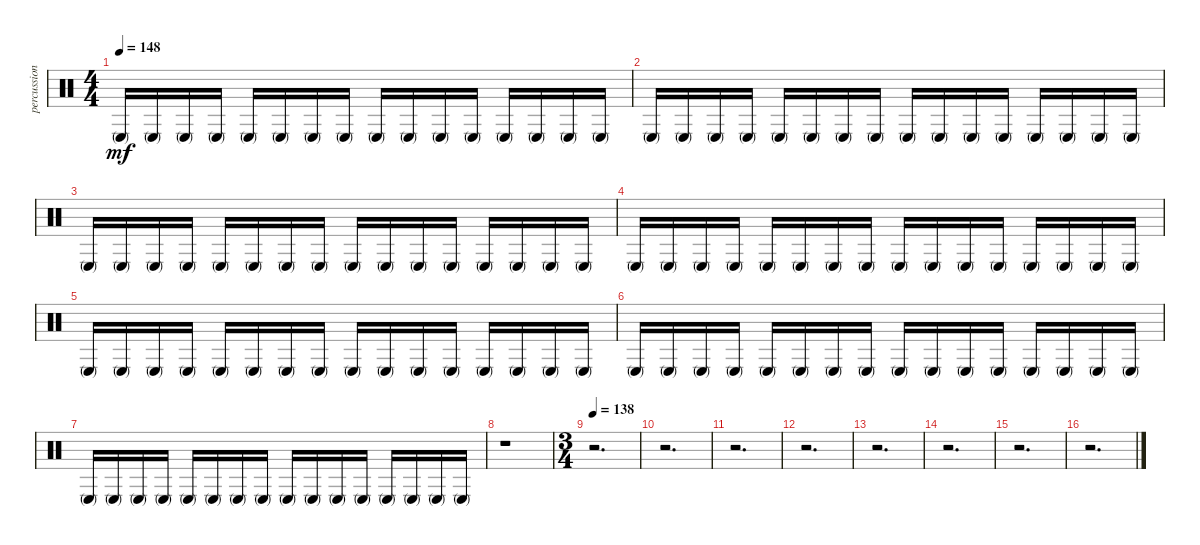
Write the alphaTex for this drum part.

\track ("percussion fx 2" "percussion") {instrument percussion}
\staff {score}
\articulation defaults
\ts (4 4)
\tempo 148
\clef neutral
\ks c "Conga low (mute)".16{dy mf} "Conga low (mute)".16 "Conga low (mute)".16 "Conga low (mute)".16 "Conga low (mute)".16 "Conga low (mute)".16 "Conga low (mute)".16 "Conga low (mute)".16 "Conga low (mute)".16 "Conga low (mute)".16 "Conga low (mute)".16 "Conga low (mute)".16 "Conga low (mute)".16 "Conga low (mute)".16 "Conga low (mute)".16 "Conga low (mute)".16
|
"Conga low (mute)".16 "Conga low (mute)".16 "Conga low (mute)".16 "Conga low (mute)".16 "Conga low (mute)".16 "Conga low (mute)".16 "Conga low (mute)".16 "Conga low (mute)".16 "Conga low (mute)".16 "Conga low (mute)".16 "Conga low (mute)".16 "Conga low (mute)".16 "Conga low (mute)".16 "Conga low (mute)".16 "Conga low (mute)".16 "Conga low (mute)".16 |
"Conga low (mute)".16 "Conga low (mute)".16 "Conga low (mute)".16 "Conga low (mute)".16 "Conga low (mute)".16 "Conga low (mute)".16 "Conga low (mute)".16 "Conga low (mute)".16 "Conga low (mute)".16 "Conga low (mute)".16 "Conga low (mute)".16 "Conga low (mute)".16 "Conga low (mute)".16 "Conga low (mute)".16 "Conga low (mute)".16 "Conga low (mute)".16 |
"Conga low (mute)".16 "Conga low (mute)".16 "Conga low (mute)".16 "Conga low (mute)".16 "Conga low (mute)".16 "Conga low (mute)".16 "Conga low (mute)".16 "Conga low (mute)".16 "Conga low (mute)".16 "Conga low (mute)".16 "Conga low (mute)".16 "Conga low (mute)".16 "Conga low (mute)".16 "Conga low (mute)".16 "Conga low (mute)".16 "Conga low (mute)".16 |
"Conga low (mute)".16 "Conga low (mute)".16 "Conga low (mute)".16 "Conga low (mute)".16 "Conga low (mute)".16 "Conga low (mute)".16 "Conga low (mute)".16 "Conga low (mute)".16 "Conga low (mute)".16 "Conga low (mute)".16 "Conga low (mute)".16 "Conga low (mute)".16 "Conga low (mute)".16 "Conga low (mute)".16 "Conga low (mute)".16 "Conga low (mute)".16 |
"Conga low (mute)".16 "Conga low (mute)".16 "Conga low (mute)".16 "Conga low (mute)".16 "Conga low (mute)".16 "Conga low (mute)".16 "Conga low (mute)".16 "Conga low (mute)".16 "Conga low (mute)".16 "Conga low (mute)".16 "Conga low (mute)".16 "Conga low (mute)".16 "Conga low (mute)".16 "Conga low (mute)".16 "Conga low (mute)".16 "Conga low (mute)".16 |
"Conga low (mute)".16 "Conga low (mute)".16 "Conga low (mute)".16 "Conga low (mute)".16 "Conga low (mute)".16 "Conga low (mute)".16 "Conga low (mute)".16 "Conga low (mute)".16 "Conga low (mute)".16 "Conga low (mute)".16 "Conga low (mute)".16 "Conga low (mute)".16 "Conga low (mute)".16 "Conga low (mute)".16 "Conga low (mute)".16 "Conga low (mute)".16 |
r.1 |
\ts (3 4)
\tempo 138
r.2{d} |
r.2{d} |
r.2{d} |
r.2{d} |
r.2{d} |
r.2{d} |
r.2{d} |
r.2{d}
